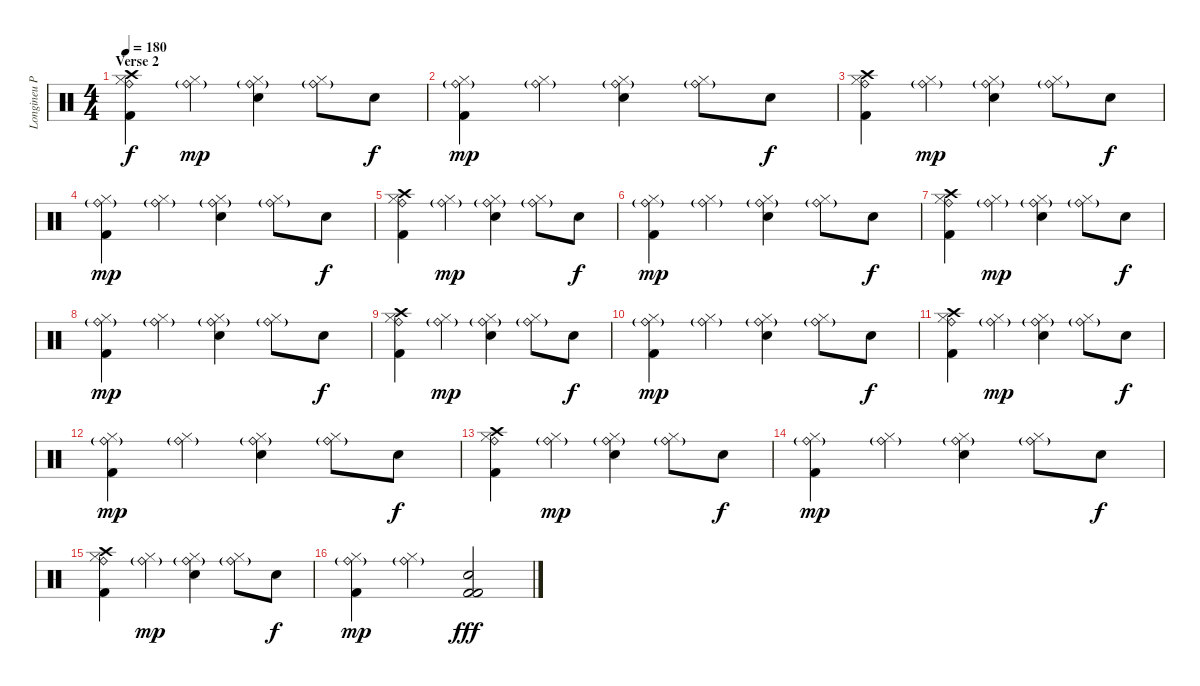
\track ("Longineu Parsons III (Drums)" "Longineu P") {instrument percussion}
\staff {score}
\articulation defaults
\ts (4 4)
\section ("" "Verse 2")
\tempo 180
\clef neutral
\ks c
("Ride (bell)" "Crash high (hit)" "Kick (hit) 2" "Hi-Hat (closed)").4{dy f} ("Ride (bell)"{g} "Hi-Hat (closed)").4{dy mp} ("Ride (bell)"{g} "Snare (hit) 2" "Hi-Hat (closed)").4 ("Ride (bell)"{g} "Hi-Hat (closed)").8 "Snare (hit) 2".8{dy f} |
("Ride (bell)"{g} "Kick (hit) 2" "Hi-Hat (closed)").4{dy mp} ("Ride (bell)"{g} "Hi-Hat (closed)").4 ("Ride (bell)"{g} "Snare (hit) 2" "Hi-Hat (closed)").4 ("Ride (bell)"{g} "Hi-Hat (closed)").8 "Snare (hit) 2".8{dy f} |
("Ride (bell)" "Crash high (hit)" "Kick (hit) 2" "Hi-Hat (closed)").4 ("Ride (bell)"{g} "Hi-Hat (closed)").4{dy mp} ("Ride (bell)"{g} "Snare (hit) 2" "Hi-Hat (closed)").4 ("Ride (bell)"{g} "Hi-Hat (closed)").8 "Snare (hit) 2".8{dy f} |
("Ride (bell)"{g} "Kick (hit) 2" "Hi-Hat (closed)").4{dy mp} ("Ride (bell)"{g} "Hi-Hat (closed)").4 ("Ride (bell)"{g} "Snare (hit) 2" "Hi-Hat (closed)").4 ("Ride (bell)"{g} "Hi-Hat (closed)").8 "Snare (hit) 2".8{dy f} |
("Ride (bell)" "Crash high (hit)" "Kick (hit) 2" "Hi-Hat (closed)").4 ("Ride (bell)"{g} "Hi-Hat (closed)").4{dy mp} ("Ride (bell)"{g} "Snare (hit) 2" "Hi-Hat (closed)").4 ("Ride (bell)"{g} "Hi-Hat (closed)").8 "Snare (hit) 2".8{dy f} |
("Ride (bell)"{g} "Kick (hit) 2" "Hi-Hat (closed)").4{dy mp} ("Ride (bell)"{g} "Hi-Hat (closed)").4 ("Ride (bell)"{g} "Snare (hit) 2" "Hi-Hat (closed)").4 ("Ride (bell)"{g} "Hi-Hat (closed)").8 "Snare (hit) 2".8{dy f} |
("Ride (bell)" "Crash high (hit)" "Kick (hit) 2" "Hi-Hat (closed)").4 ("Ride (bell)"{g} "Hi-Hat (closed)").4{dy mp} ("Ride (bell)"{g} "Snare (hit) 2" "Hi-Hat (closed)").4 ("Ride (bell)"{g} "Hi-Hat (closed)").8 "Snare (hit) 2".8{dy f} |
("Ride (bell)"{g} "Kick (hit) 2" "Hi-Hat (closed)").4{dy mp} ("Ride (bell)"{g} "Hi-Hat (closed)").4 ("Ride (bell)"{g} "Snare (hit) 2" "Hi-Hat (closed)").4 ("Ride (bell)"{g} "Hi-Hat (closed)").8 "Snare (hit) 2".8{dy f} |
("Ride (bell)" "Crash high (hit)" "Kick (hit) 2" "Hi-Hat (closed)").4 ("Ride (bell)"{g} "Hi-Hat (closed)").4{dy mp} ("Ride (bell)"{g} "Snare (hit) 2" "Hi-Hat (closed)").4 ("Ride (bell)"{g} "Hi-Hat (closed)").8 "Snare (hit) 2".8{dy f} |
("Ride (bell)"{g} "Kick (hit) 2" "Hi-Hat (closed)").4{dy mp} ("Ride (bell)"{g} "Hi-Hat (closed)").4 ("Ride (bell)"{g} "Snare (hit) 2" "Hi-Hat (closed)").4 ("Ride (bell)"{g} "Hi-Hat (closed)").8 "Snare (hit) 2".8{dy f} |
("Ride (bell)" "Crash high (hit)" "Kick (hit) 2" "Hi-Hat (closed)").4 ("Ride (bell)"{g} "Hi-Hat (closed)").4{dy mp} ("Ride (bell)"{g} "Snare (hit) 2" "Hi-Hat (closed)").4 ("Ride (bell)"{g} "Hi-Hat (closed)").8 "Snare (hit) 2".8{dy f} |
("Ride (bell)"{g} "Kick (hit) 2" "Hi-Hat (closed)").4{dy mp} ("Ride (bell)"{g} "Hi-Hat (closed)").4 ("Ride (bell)"{g} "Snare (hit) 2" "Hi-Hat (closed)").4 ("Ride (bell)"{g} "Hi-Hat (closed)").8 "Snare (hit) 2".8{dy f} |
("Ride (bell)" "Crash high (hit)" "Kick (hit) 2" "Hi-Hat (closed)").4 ("Ride (bell)"{g} "Hi-Hat (closed)").4{dy mp} ("Ride (bell)"{g} "Snare (hit) 2" "Hi-Hat (closed)").4 ("Ride (bell)"{g} "Hi-Hat (closed)").8 "Snare (hit) 2".8{dy f} |
("Ride (bell)"{g} "Kick (hit) 2" "Hi-Hat (closed)").4{dy mp} ("Ride (bell)"{g} "Hi-Hat (closed)").4 ("Ride (bell)"{g} "Snare (hit) 2" "Hi-Hat (closed)").4 ("Ride (bell)"{g} "Hi-Hat (closed)").8 "Snare (hit) 2".8{dy f} |
("Ride (bell)" "Crash high (hit)" "Kick (hit) 2" "Hi-Hat (closed)").4 ("Ride (bell)"{g} "Hi-Hat (closed)").4{dy mp} ("Ride (bell)"{g} "Snare (hit) 2" "Hi-Hat (closed)").4 ("Ride (bell)"{g} "Hi-Hat (closed)").8 "Snare (hit) 2".8{dy f} |
("Ride (bell)"{g} "Kick (hit) 2" "Hi-Hat (closed)").4{dy mp} ("Ride (bell)"{g} "Hi-Hat (closed)").4 ("Kick (hit) 2" "Snare (hit) 2" "Kick (hit) 2").2{dy fff}
